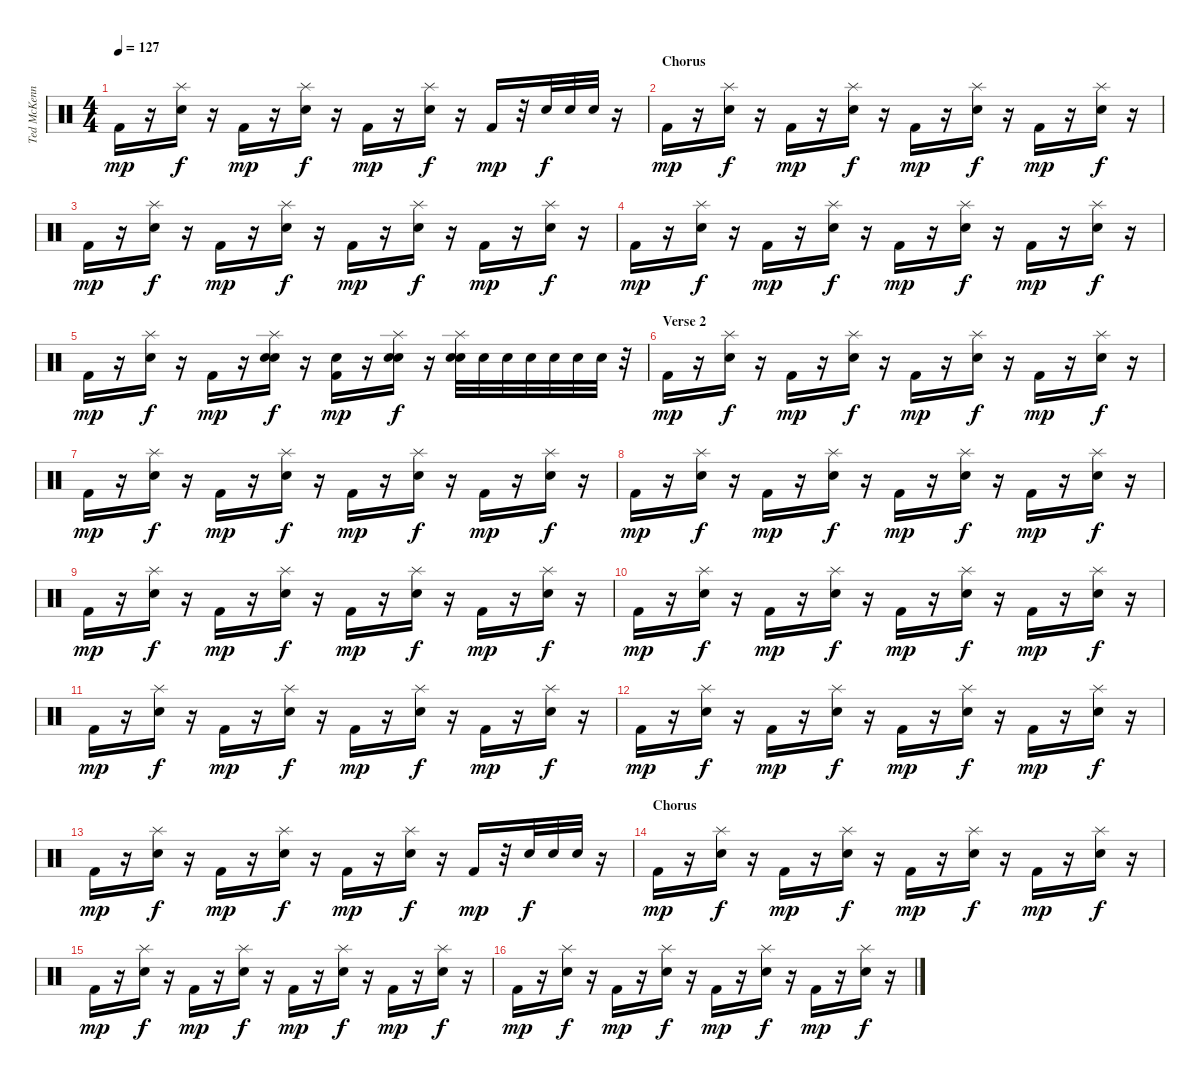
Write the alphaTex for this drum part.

\track ("Ted McKenna" "Ted McKenn") {instrument percussion}
\staff {score}
\articulation defaults
\ts (4 4)
\tempo 127
\clef neutral
\ks c "Kick (hit) 2".16{dy mp}
r.16 ("Splash (hit)" "Snare (hit) 2").16{dy f} r.16 "Kick (hit) 2".16{dy mp} r.16 ("Splash (hit)" "Snare (hit) 2").16{dy f} r.16 "Kick (hit) 2".16{dy mp} r.16 ("Splash (hit)" "Snare (hit) 2").16{dy f} r.16 "Kick (hit) 2".16{dy mp} r.32 "Snare (hit) 2".32{dy f} "Snare (hit) 2".32 "Snare (hit) 2".32 r.16 |
\section ("" "Chorus")
"Kick (hit) 2".16{dy mp} r.16 ("Splash (hit)" "Snare (hit) 2").16{dy f} r.16 "Kick (hit) 2".16{dy mp} r.16 ("Splash (hit)" "Snare (hit) 2").16{dy f} r.16 "Kick (hit) 2".16{dy mp} r.16 ("Splash (hit)" "Snare (hit) 2").16{dy f} r.16 "Kick (hit) 2".16{dy mp} r.16 ("Splash (hit)" "Snare (hit) 2").16{dy f} r.16 |
"Kick (hit) 2".16{dy mp} r.16 ("Splash (hit)" "Snare (hit) 2").16{dy f} r.16 "Kick (hit) 2".16{dy mp} r.16 ("Splash (hit)" "Snare (hit) 2").16{dy f} r.16 "Kick (hit) 2".16{dy mp} r.16 ("Splash (hit)" "Snare (hit) 2").16{dy f} r.16 "Kick (hit) 2".16{dy mp} r.16 ("Splash (hit)" "Snare (hit) 2").16{dy f} r.16 |
"Kick (hit) 2".16{dy mp} r.16 ("Splash (hit)" "Snare (hit) 2").16{dy f} r.16 "Kick (hit) 2".16{dy mp} r.16 ("Splash (hit)" "Snare (hit) 2").16{dy f} r.16 "Kick (hit) 2".16{dy mp} r.16 ("Splash (hit)" "Snare (hit) 2").16{dy f} r.16 "Kick (hit) 2".16{dy mp} r.16 ("Splash (hit)" "Snare (hit) 2").16{dy f} r.16 |
"Kick (hit) 2".16{dy mp} r.16 ("Splash (hit)" "Snare (hit) 2").16{dy f} r.16 "Kick (hit) 2".16{dy mp} r.16 ("Splash (hit)" "Snare (hit) 2" "Electric Snare (hit)").16{dy f} r.16 ("Electric Snare (hit)" "Kick (hit) 2").16{dy mp} r.16 ("Splash (hit)" "Snare (hit) 2" "Electric Snare (hit)").16{dy f} r.16 ("Splash (hit)" "Snare (hit) 2" "Electric Snare (hit)").32 "Electric Snare (hit)".32 "Electric Snare (hit)".32 "Electric Snare (hit)".32 "Electric Snare (hit)".32 "Electric Snare (hit)".32 "Electric Snare (hit)".32 r.32 |
\section ("" "Verse 2")
"Kick (hit) 2".16{dy mp} r.16 ("Splash (hit)" "Snare (hit) 2").16{dy f} r.16 "Kick (hit) 2".16{dy mp} r.16 ("Splash (hit)" "Snare (hit) 2").16{dy f} r.16 "Kick (hit) 2".16{dy mp} r.16 ("Splash (hit)" "Snare (hit) 2").16{dy f} r.16 "Kick (hit) 2".16{dy mp} r.16 ("Splash (hit)" "Snare (hit) 2").16{dy f} r.16 |
"Kick (hit) 2".16{dy mp} r.16 ("Splash (hit)" "Snare (hit) 2").16{dy f} r.16 "Kick (hit) 2".16{dy mp} r.16 ("Splash (hit)" "Snare (hit) 2").16{dy f} r.16 "Kick (hit) 2".16{dy mp} r.16 ("Splash (hit)" "Snare (hit) 2").16{dy f} r.16 "Kick (hit) 2".16{dy mp} r.16 ("Splash (hit)" "Snare (hit) 2").16{dy f} r.16 |
"Kick (hit) 2".16{dy mp} r.16 ("Splash (hit)" "Snare (hit) 2").16{dy f} r.16 "Kick (hit) 2".16{dy mp} r.16 ("Splash (hit)" "Snare (hit) 2").16{dy f} r.16 "Kick (hit) 2".16{dy mp} r.16 ("Splash (hit)" "Snare (hit) 2").16{dy f} r.16 "Kick (hit) 2".16{dy mp} r.16 ("Splash (hit)" "Snare (hit) 2").16{dy f} r.16 |
"Kick (hit) 2".16{dy mp} r.16 ("Splash (hit)" "Snare (hit) 2").16{dy f} r.16 "Kick (hit) 2".16{dy mp} r.16 ("Splash (hit)" "Snare (hit) 2").16{dy f} r.16 "Kick (hit) 2".16{dy mp} r.16 ("Splash (hit)" "Snare (hit) 2").16{dy f} r.16 "Kick (hit) 2".16{dy mp} r.16 ("Splash (hit)" "Snare (hit) 2").16{dy f} r.16 |
"Kick (hit) 2".16{dy mp} r.16 ("Splash (hit)" "Snare (hit) 2").16{dy f} r.16 "Kick (hit) 2".16{dy mp} r.16 ("Splash (hit)" "Snare (hit) 2").16{dy f} r.16 "Kick (hit) 2".16{dy mp} r.16 ("Splash (hit)" "Snare (hit) 2").16{dy f} r.16 "Kick (hit) 2".16{dy mp} r.16 ("Splash (hit)" "Snare (hit) 2").16{dy f} r.16 |
"Kick (hit) 2".16{dy mp} r.16 ("Splash (hit)" "Snare (hit) 2").16{dy f} r.16 "Kick (hit) 2".16{dy mp} r.16 ("Splash (hit)" "Snare (hit) 2").16{dy f} r.16 "Kick (hit) 2".16{dy mp} r.16 ("Splash (hit)" "Snare (hit) 2").16{dy f} r.16 "Kick (hit) 2".16{dy mp} r.16 ("Splash (hit)" "Snare (hit) 2").16{dy f} r.16 |
"Kick (hit) 2".16{dy mp} r.16 ("Splash (hit)" "Snare (hit) 2").16{dy f} r.16 "Kick (hit) 2".16{dy mp} r.16 ("Splash (hit)" "Snare (hit) 2").16{dy f} r.16 "Kick (hit) 2".16{dy mp} r.16 ("Splash (hit)" "Snare (hit) 2").16{dy f} r.16 "Kick (hit) 2".16{dy mp} r.16 ("Splash (hit)" "Snare (hit) 2").16{dy f} r.16 |
"Kick (hit) 2".16{dy mp} r.16 ("Splash (hit)" "Snare (hit) 2").16{dy f} r.16 "Kick (hit) 2".16{dy mp} r.16 ("Splash (hit)" "Snare (hit) 2").16{dy f} r.16 "Kick (hit) 2".16{dy mp} r.16 ("Splash (hit)" "Snare (hit) 2").16{dy f} r.16 "Kick (hit) 2".16{dy mp} r.32 "Snare (hit) 2".32{dy f} "Snare (hit) 2".32 "Snare (hit) 2".32 r.16 |
\section ("" "Chorus")
"Kick (hit) 2".16{dy mp} r.16 ("Splash (hit)" "Snare (hit) 2").16{dy f} r.16 "Kick (hit) 2".16{dy mp} r.16 ("Splash (hit)" "Snare (hit) 2").16{dy f} r.16 "Kick (hit) 2".16{dy mp} r.16 ("Splash (hit)" "Snare (hit) 2").16{dy f} r.16 "Kick (hit) 2".16{dy mp} r.16 ("Splash (hit)" "Snare (hit) 2").16{dy f} r.16 |
"Kick (hit) 2".16{dy mp} r.16 ("Splash (hit)" "Snare (hit) 2").16{dy f} r.16 "Kick (hit) 2".16{dy mp} r.16 ("Splash (hit)" "Snare (hit) 2").16{dy f} r.16 "Kick (hit) 2".16{dy mp} r.16 ("Splash (hit)" "Snare (hit) 2").16{dy f} r.16 "Kick (hit) 2".16{dy mp} r.16 ("Splash (hit)" "Snare (hit) 2").16{dy f} r.16 |
"Kick (hit) 2".16{dy mp} r.16 ("Splash (hit)" "Snare (hit) 2").16{dy f} r.16 "Kick (hit) 2".16{dy mp} r.16 ("Splash (hit)" "Snare (hit) 2").16{dy f} r.16 "Kick (hit) 2".16{dy mp} r.16 ("Splash (hit)" "Snare (hit) 2").16{dy f} r.16 "Kick (hit) 2".16{dy mp} r.16 ("Splash (hit)" "Snare (hit) 2").16{dy f} r.16
